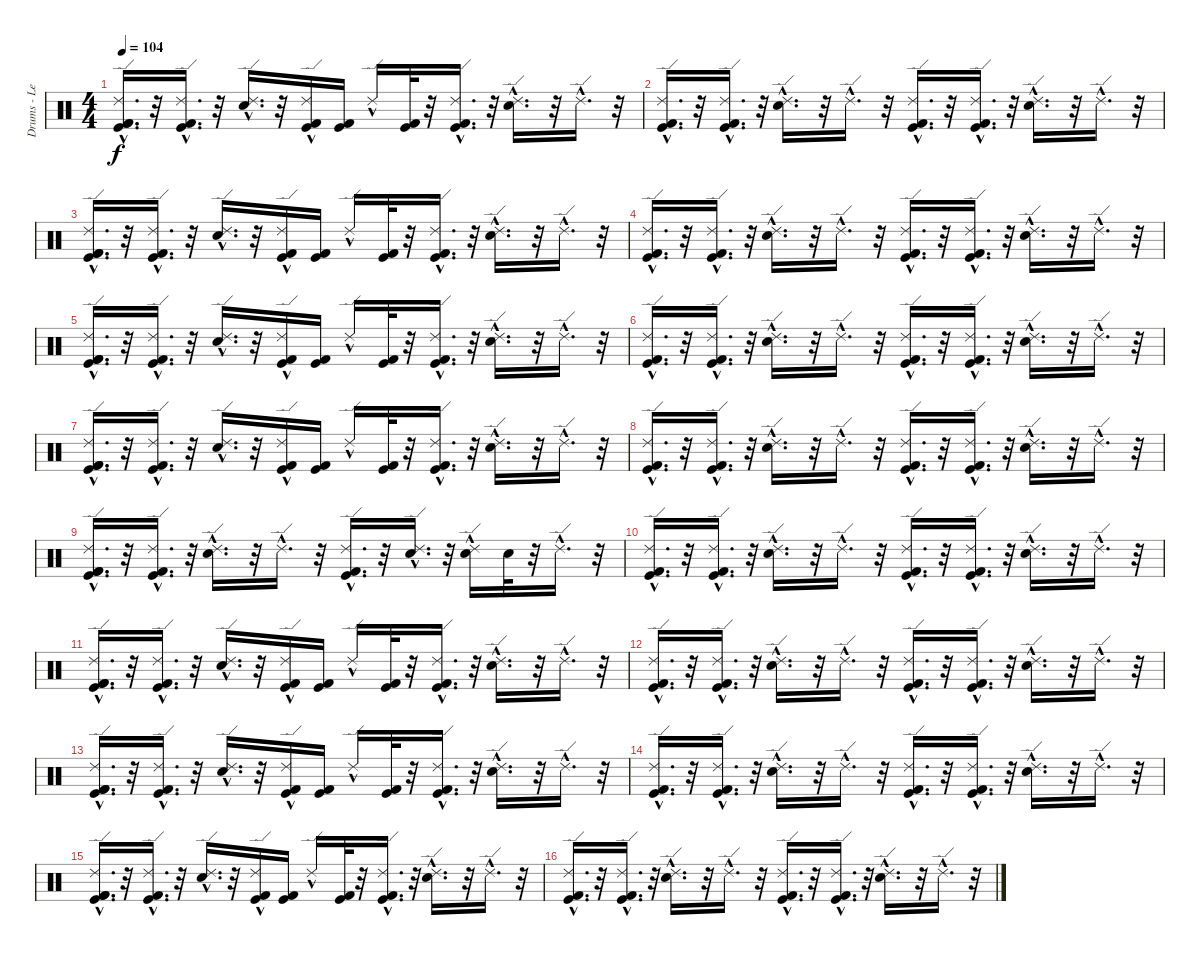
\track ("Drums - Les Claypool" "Drums - Le") {instrument percussion}
\staff {score}
\articulation defaults
\ts (4 4)
\tempo 104
\clef neutral
\ks c
("Kick (hit) 2"{hac} "Ride (edge) 2"{hac} "Kick (hit) 2"{hac} "Kick (hit)"{hac}).16{d dy f} r.32 ("Ride (edge) 2"{hac} "Kick (hit) 2"{hac} "Kick (hit)"{hac}).16{d} r.32 ("Ride (edge) 2"{hac} "Snare (hit) 2"{hac}).16{d} r.32 ("Kick (hit) 2" "Kick (hit)" "Ride (edge) 2"{hac}).16 ("Kick (hit) 2" "Kick (hit)").16 "Ride (edge) 2"{hac}.16 ("Kick (hit) 2" "Kick (hit)").32 r.32 ("Kick (hit) 2"{hac} "Kick (hit)" "Ride (edge) 2"{hac}).16{d} r.32 ("Snare (hit) 2"{hac} "Ride (edge) 2"{hac}).16{d} r.32 "Ride (edge) 2"{hac}.16{d} r.32 |
("Ride (edge) 2"{hac} "Kick (hit) 2"{hac} "Kick (hit)"{hac}).16{d} r.32 ("Kick (hit) 2"{hac} "Ride (edge) 2"{hac} "Kick (hit)"{hac}).16{d} r.32 ("Ride (edge) 2"{hac} "Snare (hit) 2"{hac}).16{d} r.32 "Ride (edge) 2"{hac}.16{d} r.32 ("Kick (hit) 2"{hac} "Ride (edge) 2"{hac} "Kick (hit)"{hac}).16{d} r.32 ("Kick (hit) 2"{hac} "Kick (hit)"{hac} "Ride (edge) 2"{hac}).16{d} r.32 ("Ride (edge) 2"{hac} "Snare (hit) 2"{hac}).16{d} r.32 "Ride (edge) 2"{hac}.16{d} r.32 |
("Kick (hit) 2"{hac} "Ride (edge) 2"{hac} "Kick (hit) 2"{hac} "Kick (hit)"{hac}).16{d} r.32 ("Ride (edge) 2"{hac} "Kick (hit) 2"{hac} "Kick (hit)"{hac}).16{d} r.32 ("Ride (edge) 2"{hac} "Snare (hit) 2"{hac}).16{d} r.32 ("Kick (hit) 2" "Kick (hit)" "Ride (edge) 2"{hac}).16 ("Kick (hit) 2" "Kick (hit)").16 "Ride (edge) 2"{hac}.16 ("Kick (hit) 2" "Kick (hit)").32 r.32 ("Kick (hit) 2"{hac} "Kick (hit)" "Ride (edge) 2"{hac}).16{d} r.32 ("Ride (edge) 2"{hac} "Snare (hit) 2"{hac}).16{d} r.32 "Ride (edge) 2"{hac}.16{d} r.32 |
("Ride (edge) 2"{hac} "Kick (hit) 2"{hac} "Kick (hit)"{hac}).16{d} r.32 ("Kick (hit) 2"{hac} "Ride (edge) 2"{hac} "Kick (hit)"{hac}).16{d} r.32 ("Ride (edge) 2"{hac} "Snare (hit) 2"{hac}).16{d} r.32 "Ride (edge) 2"{hac}.16{d} r.32 ("Kick (hit) 2"{hac} "Ride (edge) 2"{hac} "Kick (hit)"{hac}).16{d} r.32 ("Kick (hit) 2"{hac} "Kick (hit)"{hac} "Ride (edge) 2"{hac}).16{d} r.32 ("Ride (edge) 2"{hac} "Snare (hit) 2"{hac}).16{d} r.32 "Ride (edge) 2"{hac}.16{d} r.32 |
("Kick (hit) 2"{hac} "Ride (edge) 2"{hac} "Kick (hit) 2"{hac} "Kick (hit)"{hac}).16{d} r.32 ("Ride (edge) 2"{hac} "Kick (hit) 2"{hac} "Kick (hit)"{hac}).16{d} r.32 ("Ride (edge) 2"{hac} "Snare (hit) 2"{hac}).16{d} r.32 ("Kick (hit) 2" "Kick (hit)" "Ride (edge) 2"{hac}).16 ("Kick (hit) 2" "Kick (hit)").16 "Ride (edge) 2"{hac}.16 ("Kick (hit) 2" "Kick (hit)").32 r.32 ("Kick (hit) 2"{hac} "Kick (hit)" "Ride (edge) 2"{hac}).16{d} r.32 ("Ride (edge) 2"{hac} "Snare (hit) 2"{hac}).16{d} r.32 "Ride (edge) 2"{hac}.16{d} r.32 |
("Ride (edge) 2"{hac} "Kick (hit) 2"{hac} "Kick (hit)"{hac}).16{d} r.32 ("Kick (hit) 2"{hac} "Ride (edge) 2"{hac} "Kick (hit)"{hac}).16{d} r.32 ("Ride (edge) 2"{hac} "Snare (hit) 2"{hac}).16{d} r.32 "Ride (edge) 2"{hac}.16{d} r.32 ("Kick (hit) 2"{hac} "Ride (edge) 2"{hac} "Kick (hit)"{hac}).16{d} r.32 ("Kick (hit) 2"{hac} "Kick (hit)"{hac} "Ride (edge) 2"{hac}).16{d} r.32 ("Ride (edge) 2"{hac} "Snare (hit) 2"{hac}).16{d} r.32 "Ride (edge) 2"{hac}.16{d} r.32 |
("Kick (hit) 2"{hac} "Ride (edge) 2"{hac} "Kick (hit) 2"{hac} "Kick (hit)"{hac}).16{d} r.32 ("Ride (edge) 2"{hac} "Kick (hit) 2"{hac} "Kick (hit)"{hac}).16{d} r.32 ("Ride (edge) 2"{hac} "Snare (hit) 2"{hac}).16{d} r.32 ("Kick (hit) 2" "Kick (hit)" "Ride (edge) 2"{hac}).16 ("Kick (hit) 2" "Kick (hit)").16 "Ride (edge) 2"{hac}.16 ("Kick (hit) 2" "Kick (hit)").32 r.32 ("Kick (hit) 2"{hac} "Kick (hit)" "Ride (edge) 2"{hac}).16{d} r.32 ("Ride (edge) 2"{hac} "Snare (hit) 2"{hac}).16{d} r.32 "Ride (edge) 2"{hac}.16{d} r.32 |
("Ride (edge) 2"{hac} "Kick (hit) 2"{hac} "Kick (hit)"{hac}).16{d} r.32 ("Kick (hit) 2"{hac} "Ride (edge) 2"{hac} "Kick (hit)"{hac}).16{d} r.32 ("Ride (edge) 2"{hac} "Snare (hit) 2"{hac}).16{d} r.32 "Ride (edge) 2"{hac}.16{d} r.32 ("Kick (hit) 2"{hac} "Ride (edge) 2"{hac} "Kick (hit)"{hac}).16{d} r.32 ("Kick (hit) 2"{hac} "Kick (hit)"{hac} "Ride (edge) 2"{hac}).16{d} r.32 ("Ride (edge) 2"{hac} "Snare (hit) 2"{hac}).16{d} r.32 "Ride (edge) 2"{hac}.16{d} r.32 |
("Kick (hit) 2"{hac} "Ride (edge) 2"{hac} "Kick (hit) 2"{hac} "Kick (hit)"{hac}).16{d} r.32 ("Ride (edge) 2"{hac} "Kick (hit) 2"{hac} "Kick (hit)"{hac}).16{d} r.32 ("Ride (edge) 2"{hac} "Snare (hit) 2"{hac}).16{d} r.32 "Ride (edge) 2"{hac}.16{d} r.32 ("Kick (hit) 2"{hac} "Kick (hit)"{hac} "Ride (edge) 2"{hac}).16{d} r.32 ("Snare (hit) 2"{hac} "Ride (edge) 2"{hac}).16{d} r.32 ("Snare (hit) 2" "Ride (edge) 2"{hac}).16 "Snare (hit) 2".32 r.32 "Ride (edge) 2"{hac}.16{d} r.32 |
("Ride (edge) 2"{hac} "Kick (hit) 2"{hac} "Kick (hit)"{hac}).16{d} r.32 ("Kick (hit) 2"{hac} "Ride (edge) 2"{hac} "Kick (hit)"{hac}).16{d} r.32 ("Ride (edge) 2"{hac} "Snare (hit) 2"{hac}).16{d} r.32 "Ride (edge) 2"{hac}.16{d} r.32 ("Kick (hit) 2"{hac} "Ride (edge) 2"{hac} "Kick (hit)"{hac}).16{d} r.32 ("Kick (hit) 2"{hac} "Kick (hit)"{hac} "Ride (edge) 2"{hac}).16{d} r.32 ("Ride (edge) 2"{hac} "Snare (hit) 2"{hac}).16{d} r.32 "Ride (edge) 2"{hac}.16{d} r.32 |
("Kick (hit) 2"{hac} "Ride (edge) 2"{hac} "Kick (hit) 2"{hac} "Kick (hit)"{hac}).16{d} r.32 ("Ride (edge) 2"{hac} "Kick (hit) 2"{hac} "Kick (hit)"{hac}).16{d} r.32 ("Ride (edge) 2"{hac} "Snare (hit) 2"{hac}).16{d} r.32 ("Kick (hit) 2" "Kick (hit)" "Ride (edge) 2"{hac}).16 ("Kick (hit) 2" "Kick (hit)").16 "Ride (edge) 2"{hac}.16 ("Kick (hit) 2" "Kick (hit)").32 r.32 ("Kick (hit) 2"{hac} "Kick (hit)" "Ride (edge) 2"{hac}).16{d} r.32 ("Ride (edge) 2"{hac} "Snare (hit) 2"{hac}).16{d} r.32 "Ride (edge) 2"{hac}.16{d} r.32 |
("Ride (edge) 2"{hac} "Kick (hit) 2"{hac} "Kick (hit)"{hac}).16{d} r.32 ("Kick (hit) 2"{hac} "Ride (edge) 2"{hac} "Kick (hit)"{hac}).16{d} r.32 ("Ride (edge) 2"{hac} "Snare (hit) 2"{hac}).16{d} r.32 "Ride (edge) 2"{hac}.16{d} r.32 ("Kick (hit) 2"{hac} "Ride (edge) 2"{hac} "Kick (hit)"{hac}).16{d} r.32 ("Kick (hit) 2"{hac} "Kick (hit)"{hac} "Ride (edge) 2"{hac}).16{d} r.32 ("Ride (edge) 2"{hac} "Snare (hit) 2"{hac}).16{d} r.32 "Ride (edge) 2"{hac}.16{d} r.32 |
("Kick (hit) 2"{hac} "Ride (edge) 2"{hac} "Kick (hit) 2"{hac} "Kick (hit)"{hac}).16{d} r.32 ("Ride (edge) 2"{hac} "Kick (hit) 2"{hac} "Kick (hit)"{hac}).16{d} r.32 ("Ride (edge) 2"{hac} "Snare (hit) 2"{hac}).16{d} r.32 ("Kick (hit) 2" "Kick (hit)" "Ride (edge) 2"{hac}).16 ("Kick (hit) 2" "Kick (hit)").16 "Ride (edge) 2"{hac}.16 ("Kick (hit) 2" "Kick (hit)").32 r.32 ("Kick (hit) 2"{hac} "Kick (hit)" "Ride (edge) 2"{hac}).16{d} r.32 ("Ride (edge) 2"{hac} "Snare (hit) 2"{hac}).16{d} r.32 "Ride (edge) 2"{hac}.16{d} r.32 |
("Ride (edge) 2"{hac} "Kick (hit) 2"{hac} "Kick (hit)"{hac}).16{d} r.32 ("Kick (hit) 2"{hac} "Ride (edge) 2"{hac} "Kick (hit)"{hac}).16{d} r.32 ("Ride (edge) 2"{hac} "Snare (hit) 2"{hac}).16{d} r.32 "Ride (edge) 2"{hac}.16{d} r.32 ("Kick (hit) 2"{hac} "Ride (edge) 2"{hac} "Kick (hit)"{hac}).16{d} r.32 ("Kick (hit) 2"{hac} "Kick (hit)"{hac} "Ride (edge) 2"{hac}).16{d} r.32 ("Ride (edge) 2"{hac} "Snare (hit) 2"{hac}).16{d} r.32 "Ride (edge) 2"{hac}.16{d} r.32 |
("Kick (hit) 2"{hac} "Ride (edge) 2"{hac} "Kick (hit) 2"{hac} "Kick (hit)"{hac}).16{d} r.32 ("Ride (edge) 2"{hac} "Kick (hit) 2"{hac} "Kick (hit)"{hac}).16{d} r.32 ("Ride (edge) 2"{hac} "Snare (hit) 2"{hac}).16{d} r.32 ("Kick (hit) 2" "Kick (hit)" "Ride (edge) 2"{hac}).16 ("Kick (hit) 2" "Kick (hit)").16 "Ride (edge) 2"{hac}.16 ("Kick (hit) 2" "Kick (hit)").32 r.32 ("Kick (hit) 2"{hac} "Kick (hit)" "Ride (edge) 2"{hac}).16{d} r.32 ("Ride (edge) 2"{hac} "Snare (hit) 2"{hac}).16{d} r.32 "Ride (edge) 2"{hac}.16{d} r.32 |
("Ride (edge) 2"{hac} "Kick (hit) 2"{hac} "Kick (hit)"{hac}).16{d} r.32 ("Kick (hit) 2"{hac} "Ride (edge) 2"{hac} "Kick (hit)"{hac}).16{d} r.32 ("Ride (edge) 2"{hac} "Snare (hit) 2"{hac}).16{d} r.32 "Ride (edge) 2"{hac}.16{d} r.32 ("Kick (hit) 2"{hac} "Ride (edge) 2"{hac} "Kick (hit)"{hac}).16{d} r.32 ("Kick (hit) 2"{hac} "Kick (hit)"{hac} "Ride (edge) 2"{hac}).16{d} r.32 ("Ride (edge) 2"{hac} "Snare (hit) 2"{hac}).16{d} r.32 "Ride (edge) 2"{hac}.16{d} r.32
